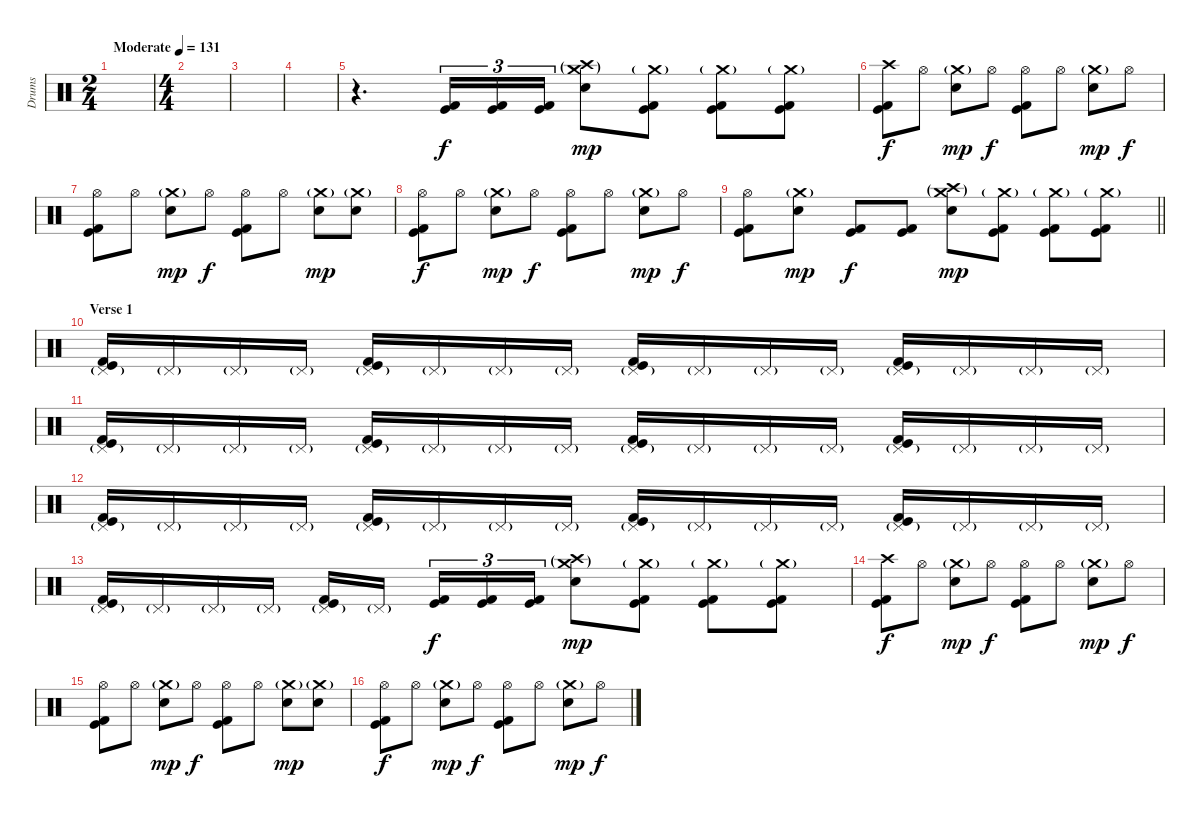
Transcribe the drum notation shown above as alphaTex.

\track ("Drums" "Drums") {instrument percussion}
\staff {score}
\articulation defaults
\ts (2 4)
\tempo (131 "Moderate")
\clef neutral
\ks c
|
\ts (4 4)
|
|
|
r.4{d} ("Kick (hit)" "Kick (hit) 2").16{tu (3 2)} ("Kick (hit)" "Kick (hit) 2").16{tu (3 2)} ("Kick (hit)" "Kick (hit) 2").16{tu (3 2)} ("Crash medium (hit)"{g} "Crash high (hit)"{g} "Electric Snare (hit)").8{dy mp} ("Crash medium (hit)"{g} "Kick (hit)" "Kick (hit) 2").8 ("Crash medium (hit)"{g} "Kick (hit)" "Kick (hit) 2").8 ("Crash medium (hit)"{g} "Kick (hit)" "Kick (hit) 2").8 |
("Crash high (hit)" "Kick (hit)" "Kick (hit) 2").8{dy f} "Hi-Hat (open)".8 ("Crash medium (hit)"{g} "Electric Snare (hit)").8{dy mp} "Hi-Hat (open)".8{dy f} ("Hi-Hat (open)" "Kick (hit)" "Kick (hit) 2").8 "Hi-Hat (open)".8 ("Crash medium (hit)"{g} "Electric Snare (hit)").8{dy mp} "Hi-Hat (open)".8{dy f} |
("Hi-Hat (open)" "Kick (hit)" "Kick (hit) 2").8 "Hi-Hat (open)".8 ("Crash medium (hit)"{g} "Electric Snare (hit)").8{dy mp} "Hi-Hat (open)".8{dy f} ("Hi-Hat (open)" "Kick (hit)" "Kick (hit) 2").8 "Hi-Hat (open)".8 ("Crash medium (hit)"{g} "Electric Snare (hit)").8{dy mp} ("Crash medium (hit)"{g} "Electric Snare (hit)").8 |
("Hi-Hat (open)" "Kick (hit)" "Kick (hit) 2").8{dy f} "Hi-Hat (open)".8 ("Crash medium (hit)"{g} "Electric Snare (hit)").8{dy mp} "Hi-Hat (open)".8{dy f} ("Hi-Hat (open)" "Kick (hit)" "Kick (hit) 2").8 "Hi-Hat (open)".8 ("Crash medium (hit)"{g} "Electric Snare (hit)").8{dy mp} "Hi-Hat (open)".8{dy f} |
\barLineRight lightlight
("Hi-Hat (open)" "Kick (hit)" "Kick (hit) 2").8 ("Crash medium (hit)"{g} "Electric Snare (hit)").8{dy mp} ("Kick (hit)" "Kick (hit) 2").8{dy f} ("Kick (hit)" "Kick (hit) 2").8 ("Crash medium (hit)"{g} "Crash high (hit)"{g} "Electric Snare (hit)").8{dy mp} ("Crash medium (hit)"{g} "Kick (hit)" "Kick (hit) 2").8 ("Crash medium (hit)"{g} "Kick (hit)" "Kick (hit) 2").8 ("Crash medium (hit)"{g} "Kick (hit)" "Kick (hit) 2").8 |
\section ("" "Verse 1")
("Pedal Hi-Hat (hit)"{g} "Kick (hit)" "Kick (hit) 2").16 "Pedal Hi-Hat (hit)"{g}.16 "Pedal Hi-Hat (hit)"{g}.16 "Pedal Hi-Hat (hit)"{g}.16 ("Pedal Hi-Hat (hit)"{g} "Kick (hit)" "Kick (hit) 2").16 "Pedal Hi-Hat (hit)"{g}.16 "Pedal Hi-Hat (hit)"{g}.16 "Pedal Hi-Hat (hit)"{g}.16 ("Pedal Hi-Hat (hit)"{g} "Kick (hit)" "Kick (hit) 2").16 "Pedal Hi-Hat (hit)"{g}.16 "Pedal Hi-Hat (hit)"{g}.16 "Pedal Hi-Hat (hit)"{g}.16 ("Pedal Hi-Hat (hit)"{g} "Kick (hit)" "Kick (hit) 2").16 "Pedal Hi-Hat (hit)"{g}.16 "Pedal Hi-Hat (hit)"{g}.16 "Pedal Hi-Hat (hit)"{g}.16 |
("Pedal Hi-Hat (hit)"{g} "Kick (hit)" "Kick (hit) 2").16 "Pedal Hi-Hat (hit)"{g}.16 "Pedal Hi-Hat (hit)"{g}.16 "Pedal Hi-Hat (hit)"{g}.16 ("Pedal Hi-Hat (hit)"{g} "Kick (hit)" "Kick (hit) 2").16 "Pedal Hi-Hat (hit)"{g}.16 "Pedal Hi-Hat (hit)"{g}.16 "Pedal Hi-Hat (hit)"{g}.16 ("Pedal Hi-Hat (hit)"{g} "Kick (hit)" "Kick (hit) 2").16 "Pedal Hi-Hat (hit)"{g}.16 "Pedal Hi-Hat (hit)"{g}.16 "Pedal Hi-Hat (hit)"{g}.16 ("Pedal Hi-Hat (hit)"{g} "Kick (hit)" "Kick (hit) 2").16 "Pedal Hi-Hat (hit)"{g}.16 "Pedal Hi-Hat (hit)"{g}.16 "Pedal Hi-Hat (hit)"{g}.16 |
("Pedal Hi-Hat (hit)"{g} "Kick (hit)" "Kick (hit) 2").16 "Pedal Hi-Hat (hit)"{g}.16 "Pedal Hi-Hat (hit)"{g}.16 "Pedal Hi-Hat (hit)"{g}.16 ("Pedal Hi-Hat (hit)"{g} "Kick (hit)" "Kick (hit) 2").16 "Pedal Hi-Hat (hit)"{g}.16 "Pedal Hi-Hat (hit)"{g}.16 "Pedal Hi-Hat (hit)"{g}.16 ("Pedal Hi-Hat (hit)"{g} "Kick (hit)" "Kick (hit) 2").16 "Pedal Hi-Hat (hit)"{g}.16 "Pedal Hi-Hat (hit)"{g}.16 "Pedal Hi-Hat (hit)"{g}.16 ("Pedal Hi-Hat (hit)"{g} "Kick (hit)" "Kick (hit) 2").16 "Pedal Hi-Hat (hit)"{g}.16 "Pedal Hi-Hat (hit)"{g}.16 "Pedal Hi-Hat (hit)"{g}.16 |
("Pedal Hi-Hat (hit)"{g} "Kick (hit)" "Kick (hit) 2").16 "Pedal Hi-Hat (hit)"{g}.16 "Pedal Hi-Hat (hit)"{g}.16 "Pedal Hi-Hat (hit)"{g}.16 ("Pedal Hi-Hat (hit)"{g} "Kick (hit)" "Kick (hit) 2").16 "Pedal Hi-Hat (hit)"{g}.16{beam splitsecondary} ("Kick (hit)" "Kick (hit) 2").16{tu (3 2) dy f} ("Kick (hit)" "Kick (hit) 2").16{tu (3 2)} ("Kick (hit)" "Kick (hit) 2").16{tu (3 2)} ("Crash medium (hit)"{g} "Crash high (hit)"{g} "Electric Snare (hit)").8{dy mp} ("Crash medium (hit)"{g} "Kick (hit)" "Kick (hit) 2").8 ("Crash medium (hit)"{g} "Kick (hit)" "Kick (hit) 2").8 ("Crash medium (hit)"{g} "Kick (hit)" "Kick (hit) 2").8 |
("Crash high (hit)" "Kick (hit)" "Kick (hit) 2").8{dy f} "Hi-Hat (open)".8 ("Crash medium (hit)"{g} "Electric Snare (hit)").8{dy mp} "Hi-Hat (open)".8{dy f} ("Hi-Hat (open)" "Kick (hit)" "Kick (hit) 2").8 "Hi-Hat (open)".8 ("Crash medium (hit)"{g} "Electric Snare (hit)").8{dy mp} "Hi-Hat (open)".8{dy f} |
("Hi-Hat (open)" "Kick (hit)" "Kick (hit) 2").8 "Hi-Hat (open)".8 ("Crash medium (hit)"{g} "Electric Snare (hit)").8{dy mp} "Hi-Hat (open)".8{dy f} ("Hi-Hat (open)" "Kick (hit)" "Kick (hit) 2").8 "Hi-Hat (open)".8 ("Crash medium (hit)"{g} "Electric Snare (hit)").8{dy mp} ("Crash medium (hit)"{g} "Electric Snare (hit)").8 |
("Hi-Hat (open)" "Kick (hit)" "Kick (hit) 2").8{dy f} "Hi-Hat (open)".8 ("Crash medium (hit)"{g} "Electric Snare (hit)").8{dy mp} "Hi-Hat (open)".8{dy f} ("Hi-Hat (open)" "Kick (hit)" "Kick (hit) 2").8 "Hi-Hat (open)".8 ("Crash medium (hit)"{g} "Electric Snare (hit)").8{dy mp} "Hi-Hat (open)".8{dy f}
